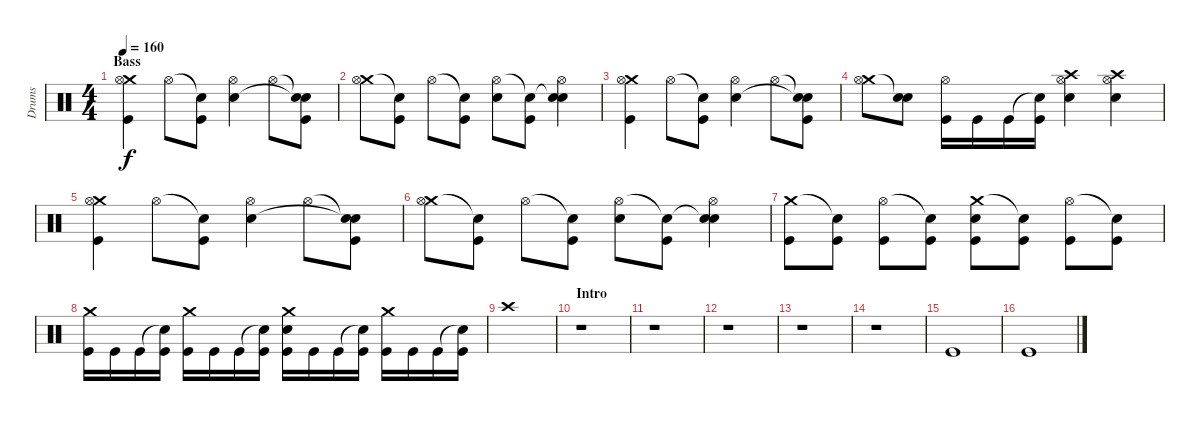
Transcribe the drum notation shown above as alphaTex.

\track ("Drums" "Drums") {instrument percussion}
\staff {score}
\articulation defaults
\ts (4 4)
\section ("" "Bass")
\tempo 160
\clef neutral
\ks c
("Crash medium (hit)" "Hi-Hat (open)" "Kick (hit)").4{dy f} "Hi-Hat (open)".8 ("Snare (hit)"{t} "Kick (hit)").8 ("Hi-Hat (open)" "Electric Snare (hit)").4 "Hi-Hat (open)".8 ("Snare (hit)"{t} "Snare (hit)"{t} "Kick (hit)").8 |
("Crash medium (hit)" "Hi-Hat (open)").8 ("Snare (hit)"{t} "Kick (hit)").8 "Hi-Hat (open)".8 ("Snare (hit)"{t} "Kick (hit)").8 ("Hi-Hat (open)" "Electric Snare (hit)").8 ("Snare (hit)"{t} "Kick (hit)").8 ("Snare (hit)"{t} "Hi-Hat (open)" "Electric Snare (hit)").4 |
("Crash medium (hit)" "Hi-Hat (open)" "Kick (hit)").4 "Hi-Hat (open)".8 ("Snare (hit)"{t} "Kick (hit)").8 ("Hi-Hat (open)" "Electric Snare (hit)").4 "Hi-Hat (open)".8 ("Snare (hit)"{t} "Snare (hit)"{t} "Kick (hit)").8 |
("Crash medium (hit)" "Hi-Hat (open)").8 ("Snare (hit)"{t} "Electric Snare (hit)").8 ("Hi-Hat (open)" "Kick (hit)").16 "Kick (hit)".16 "Kick (hit)".16 ("Snare (hit)"{t} "Kick (hit)").16 ("Crash high (hit)" "Hi-Hat (open)" "Electric Snare (hit)").4 ("Crash high (hit)" "Hi-Hat (open)" "Electric Snare (hit)").4 |
("Crash medium (hit)" "Hi-Hat (open)" "Kick (hit)").4 "Hi-Hat (open)".8 ("Snare (hit)"{t} "Kick (hit)").8 ("Hi-Hat (open)" "Electric Snare (hit)").4 "Hi-Hat (open)".8 ("Snare (hit)"{t} "Snare (hit)"{t} "Kick (hit)").8 |
("Crash medium (hit)" "Hi-Hat (open)").8 ("Snare (hit)"{t} "Kick (hit)").8 "Hi-Hat (open)".8 ("Snare (hit)"{t} "Kick (hit)").8 ("Hi-Hat (open)" "Electric Snare (hit)").8 ("Snare (hit)"{t} "Kick (hit)").8 ("Snare (hit)"{t} "Hi-Hat (open)" "Electric Snare (hit)").4 |
("Crash medium (hit)" "Kick (hit)").8 ("Snare (hit)"{t} "Kick (hit)").8 ("Hi-Hat (open)" "Kick (hit)").8 ("Snare (hit)"{t} "Kick (hit)").8 ("Crash medium (hit)" "Electric Snare (hit)" "Kick (hit)").8 ("Snare (hit)"{t} "Kick (hit)").8 ("Hi-Hat (open)" "Kick (hit)").8 ("Snare (hit)"{t} "Kick (hit)").8 |
("Crash medium (hit)" "Kick (hit)").16 "Kick (hit)".16 "Kick (hit)".16 ("Snare (hit)"{t} "Kick (hit)").16 ("Crash medium (hit)" "Kick (hit)").16 "Kick (hit)".16 "Kick (hit)".16 ("Snare (hit)"{t} "Kick (hit)").16 ("Crash medium (hit)" "Electric Snare (hit)" "Kick (hit)").16 "Kick (hit)".16 "Kick (hit)".16 ("Snare (hit)"{t} "Kick (hit)").16 ("Crash medium (hit)" "Kick (hit)").16 "Kick (hit)".16 "Kick (hit)".16 ("Snare (hit)"{t} "Kick (hit)").16 |
"Crash high (hit)".1 |
\section ("" "Intro")
r.1 |
r.1 |
r.1 |
r.1 |
r.1 |
"Kick (hit)".1 |
"Kick (hit)".1
